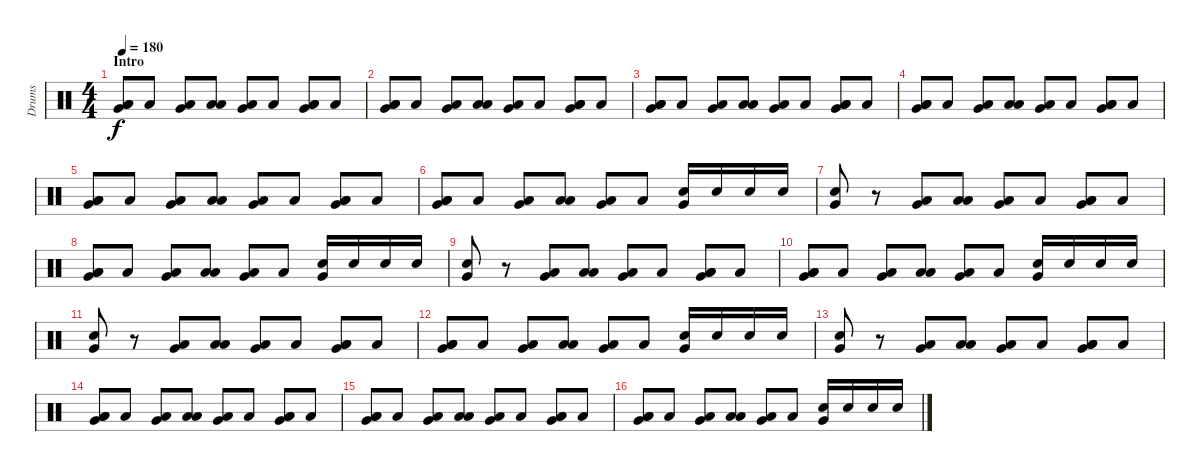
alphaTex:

\track ("Drums" "Drums") {instrument percussion}
\staff {score}
\articulation defaults
\ts (4 4)
\section ("" "Intro")
\tempo 180
\clef neutral
\ks c
("Low Floor Tom (hit)" "Low Tom (hit)" "Very Low Tom (hit)").8{dy f} "Low Floor Tom (hit)".8 ("Low Floor Tom (hit)" "Very Low Tom (hit)").8 ("Low Floor Tom (hit)" "Low Tom (hit)").8 ("Low Floor Tom (hit)" "Very Low Tom (hit)").8 "Low Floor Tom (hit)".8 ("Low Floor Tom (hit)" "Low Tom (hit)" "Very Low Tom (hit)").8 "Low Floor Tom (hit)".8 |
("Low Floor Tom (hit)" "Low Tom (hit)" "Very Low Tom (hit)").8 "Low Floor Tom (hit)".8 ("Low Floor Tom (hit)" "Very Low Tom (hit)").8 ("Low Floor Tom (hit)" "Low Tom (hit)").8 ("Low Floor Tom (hit)" "Very Low Tom (hit)").8 "Low Floor Tom (hit)".8 ("Low Floor Tom (hit)" "Low Tom (hit)" "Very Low Tom (hit)").8 "Low Floor Tom (hit)".8 |
("Low Floor Tom (hit)" "Low Tom (hit)" "Very Low Tom (hit)").8 "Low Floor Tom (hit)".8 ("Low Floor Tom (hit)" "Very Low Tom (hit)").8 ("Low Floor Tom (hit)" "Low Tom (hit)").8 ("Low Floor Tom (hit)" "Very Low Tom (hit)").8 "Low Floor Tom (hit)".8 ("Low Floor Tom (hit)" "Low Tom (hit)" "Very Low Tom (hit)").8 "Low Floor Tom (hit)".8 |
("Low Floor Tom (hit)" "Low Tom (hit)" "Very Low Tom (hit)").8 "Low Floor Tom (hit)".8 ("Low Floor Tom (hit)" "Very Low Tom (hit)").8 ("Low Floor Tom (hit)" "Low Tom (hit)").8 ("Low Floor Tom (hit)" "Very Low Tom (hit)").8 "Low Floor Tom (hit)".8 ("Low Floor Tom (hit)" "Low Tom (hit)" "Very Low Tom (hit)").8 "Low Floor Tom (hit)".8 |
("Low Floor Tom (hit)" "Low Tom (hit)" "Very Low Tom (hit)").8 "Low Floor Tom (hit)".8 ("Low Floor Tom (hit)" "Very Low Tom (hit)").8 ("Low Floor Tom (hit)" "Low Tom (hit)").8 ("Low Floor Tom (hit)" "Very Low Tom (hit)").8 "Low Floor Tom (hit)".8 ("Low Floor Tom (hit)" "Low Tom (hit)" "Very Low Tom (hit)").8 "Low Floor Tom (hit)".8 |
("Low Floor Tom (hit)" "Low Tom (hit)" "Very Low Tom (hit)").8 "Low Floor Tom (hit)".8 ("Low Floor Tom (hit)" "Very Low Tom (hit)").8 ("Low Floor Tom (hit)" "Low Tom (hit)").8 ("Low Floor Tom (hit)" "Very Low Tom (hit)").8 "Low Floor Tom (hit)".8 ("Very Low Tom (hit)" "Electric Snare (hit)").16 "Electric Snare (hit)".16 "Electric Snare (hit)".16 "Electric Snare (hit)".16 |
("Very Low Tom (hit)" "Electric Snare (hit)").8 r.8 ("Low Floor Tom (hit)" "Very Low Tom (hit)").8 ("Low Floor Tom (hit)" "Low Tom (hit)").8 ("Low Floor Tom (hit)" "Very Low Tom (hit)").8 "Low Floor Tom (hit)".8 ("Low Floor Tom (hit)" "Low Tom (hit)" "Very Low Tom (hit)").8 "Low Floor Tom (hit)".8 |
("Low Floor Tom (hit)" "Low Tom (hit)" "Very Low Tom (hit)").8 "Low Floor Tom (hit)".8 ("Low Floor Tom (hit)" "Very Low Tom (hit)").8 ("Low Floor Tom (hit)" "Low Tom (hit)").8 ("Low Floor Tom (hit)" "Very Low Tom (hit)").8 "Low Floor Tom (hit)".8 ("Very Low Tom (hit)" "Electric Snare (hit)").16 "Electric Snare (hit)".16 "Electric Snare (hit)".16 "Electric Snare (hit)".16 |
("Very Low Tom (hit)" "Electric Snare (hit)").8 r.8 ("Low Floor Tom (hit)" "Very Low Tom (hit)").8 ("Low Floor Tom (hit)" "Low Tom (hit)").8 ("Low Floor Tom (hit)" "Very Low Tom (hit)").8 "Low Floor Tom (hit)".8 ("Low Floor Tom (hit)" "Low Tom (hit)" "Very Low Tom (hit)").8 "Low Floor Tom (hit)".8 |
("Low Floor Tom (hit)" "Low Tom (hit)" "Very Low Tom (hit)").8 "Low Floor Tom (hit)".8 ("Low Floor Tom (hit)" "Very Low Tom (hit)").8 ("Low Floor Tom (hit)" "Low Tom (hit)").8 ("Low Floor Tom (hit)" "Very Low Tom (hit)").8 "Low Floor Tom (hit)".8 ("Very Low Tom (hit)" "Electric Snare (hit)").16 "Electric Snare (hit)".16 "Electric Snare (hit)".16 "Electric Snare (hit)".16 |
("Very Low Tom (hit)" "Electric Snare (hit)").8 r.8 ("Low Floor Tom (hit)" "Very Low Tom (hit)").8 ("Low Floor Tom (hit)" "Low Tom (hit)").8 ("Low Floor Tom (hit)" "Very Low Tom (hit)").8 "Low Floor Tom (hit)".8 ("Low Floor Tom (hit)" "Low Tom (hit)" "Very Low Tom (hit)").8 "Low Floor Tom (hit)".8 |
("Low Floor Tom (hit)" "Low Tom (hit)" "Very Low Tom (hit)").8 "Low Floor Tom (hit)".8 ("Low Floor Tom (hit)" "Very Low Tom (hit)").8 ("Low Floor Tom (hit)" "Low Tom (hit)").8 ("Low Floor Tom (hit)" "Very Low Tom (hit)").8 "Low Floor Tom (hit)".8 ("Very Low Tom (hit)" "Electric Snare (hit)").16 "Electric Snare (hit)".16 "Electric Snare (hit)".16 "Electric Snare (hit)".16 |
("Very Low Tom (hit)" "Electric Snare (hit)").8 r.8 ("Low Floor Tom (hit)" "Very Low Tom (hit)").8 ("Low Floor Tom (hit)" "Low Tom (hit)").8 ("Low Floor Tom (hit)" "Very Low Tom (hit)").8 "Low Floor Tom (hit)".8 ("Low Floor Tom (hit)" "Low Tom (hit)" "Very Low Tom (hit)").8 "Low Floor Tom (hit)".8 |
("Low Floor Tom (hit)" "Low Tom (hit)" "Very Low Tom (hit)").8 "Low Floor Tom (hit)".8 ("Low Floor Tom (hit)" "Very Low Tom (hit)").8 ("Low Floor Tom (hit)" "Low Tom (hit)").8 ("Low Floor Tom (hit)" "Very Low Tom (hit)").8 "Low Floor Tom (hit)".8 ("Low Floor Tom (hit)" "Low Tom (hit)" "Very Low Tom (hit)").8 "Low Floor Tom (hit)".8 |
("Low Floor Tom (hit)" "Low Tom (hit)" "Very Low Tom (hit)").8 "Low Floor Tom (hit)".8 ("Low Floor Tom (hit)" "Very Low Tom (hit)").8 ("Low Floor Tom (hit)" "Low Tom (hit)").8 ("Low Floor Tom (hit)" "Very Low Tom (hit)").8 "Low Floor Tom (hit)".8 ("Low Floor Tom (hit)" "Low Tom (hit)" "Very Low Tom (hit)").8 "Low Floor Tom (hit)".8 |
("Low Floor Tom (hit)" "Low Tom (hit)" "Very Low Tom (hit)").8 "Low Floor Tom (hit)".8 ("Low Floor Tom (hit)" "Very Low Tom (hit)").8 ("Low Floor Tom (hit)" "Low Tom (hit)").8 ("Low Floor Tom (hit)" "Very Low Tom (hit)").8 "Low Floor Tom (hit)".8 ("Very Low Tom (hit)" "Electric Snare (hit)").16 "Electric Snare (hit)".16 "Electric Snare (hit)".16 "Electric Snare (hit)".16
